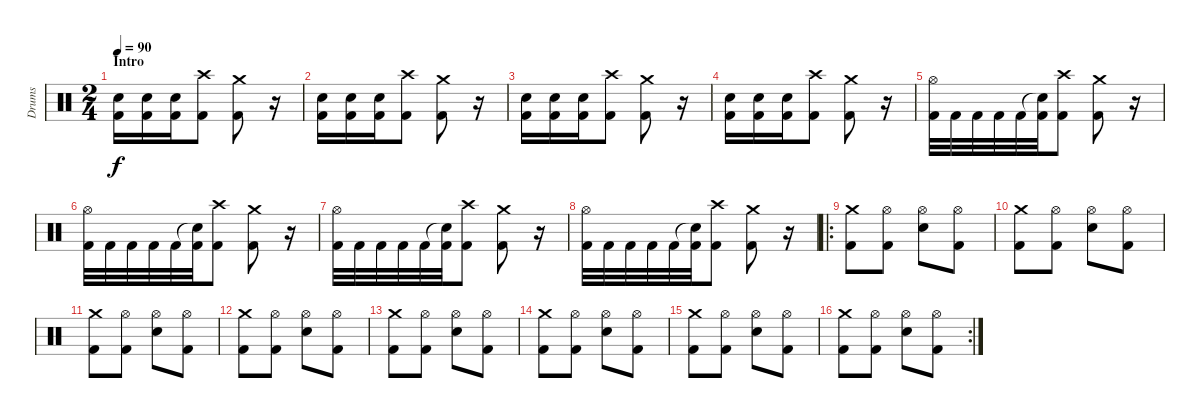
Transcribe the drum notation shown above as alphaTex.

\track ("Drums" "Drums") {instrument percussion}
\staff {score}
\articulation defaults
\ts (2 4)
\section ("" "Intro")
\tempo 90
\clef neutral
\ks c
("Snare (hit) 2" "Kick (hit) 2").16{dy f} ("Snare (hit) 2" "Kick (hit) 2").16 ("Snare (hit) 2" "Kick (hit) 2").16 ("Crash high (hit)" "Kick (hit) 2").8 ("Crash medium (hit)" "Kick (hit) 2").8 r.16 |
("Snare (hit) 2" "Kick (hit) 2").16 ("Snare (hit) 2" "Kick (hit) 2").16 ("Snare (hit) 2" "Kick (hit) 2").16 ("Crash high (hit)" "Kick (hit) 2").8 ("Crash medium (hit)" "Kick (hit) 2").8 r.16 |
("Snare (hit) 2" "Kick (hit) 2").16 ("Snare (hit) 2" "Kick (hit) 2").16 ("Snare (hit) 2" "Kick (hit) 2").16 ("Crash high (hit)" "Kick (hit) 2").8 ("Crash medium (hit)" "Kick (hit) 2").8 r.16 |
("Snare (hit) 2" "Kick (hit) 2").16 ("Snare (hit) 2" "Kick (hit) 2").16 ("Snare (hit) 2" "Kick (hit) 2").16 ("Crash high (hit)" "Kick (hit) 2").8 ("Crash medium (hit)" "Kick (hit) 2").8 r.16 |
("Hi-Hat (open)" "Kick (hit) 2").32 "Kick (hit) 2".32 "Kick (hit) 2".32 "Kick (hit) 2".32 "Kick (hit) 2".32 ("Snare (hit) 2"{t} "Kick (hit) 2").32 ("Crash high (hit)" "Kick (hit) 2").8 ("Crash medium (hit)" "Kick (hit) 2").8 r.16 |
("Hi-Hat (open)" "Kick (hit) 2").32 "Kick (hit) 2".32 "Kick (hit) 2".32 "Kick (hit) 2".32 "Kick (hit) 2".32 ("Snare (hit) 2"{t} "Kick (hit) 2").32 ("Crash high (hit)" "Kick (hit) 2").8 ("Crash medium (hit)" "Kick (hit) 2").8 r.16 |
("Hi-Hat (open)" "Kick (hit) 2").32 "Kick (hit) 2".32 "Kick (hit) 2".32 "Kick (hit) 2".32 "Kick (hit) 2".32 ("Snare (hit) 2"{t} "Kick (hit) 2").32 ("Crash high (hit)" "Kick (hit) 2").8 ("Crash medium (hit)" "Kick (hit) 2").8 r.16 |
("Hi-Hat (open)" "Kick (hit) 2").32 "Kick (hit) 2".32 "Kick (hit) 2".32 "Kick (hit) 2".32 "Kick (hit) 2".32 ("Snare (hit) 2"{t} "Kick (hit) 2").32 ("Crash high (hit)" "Kick (hit) 2").8 ("Crash medium (hit)" "Kick (hit) 2").8 r.16 |
\ro
("Crash medium (hit)" "Kick (hit) 2").8 ("Hi-Hat (open)" "Kick (hit) 2").8 ("Hi-Hat (open)" "Snare (hit) 2").8 ("Hi-Hat (open)" "Kick (hit) 2").8 |
("Crash medium (hit)" "Kick (hit) 2").8 ("Hi-Hat (open)" "Kick (hit) 2").8 ("Hi-Hat (open)" "Snare (hit) 2").8 ("Hi-Hat (open)" "Kick (hit) 2").8 |
("Crash medium (hit)" "Kick (hit) 2").8 ("Hi-Hat (open)" "Kick (hit) 2").8 ("Hi-Hat (open)" "Snare (hit) 2").8 ("Hi-Hat (open)" "Kick (hit) 2").8 |
("Crash medium (hit)" "Kick (hit) 2").8 ("Hi-Hat (open)" "Kick (hit) 2").8 ("Hi-Hat (open)" "Snare (hit) 2").8 ("Hi-Hat (open)" "Kick (hit) 2").8 |
("Crash medium (hit)" "Kick (hit) 2").8 ("Hi-Hat (open)" "Kick (hit) 2").8 ("Hi-Hat (open)" "Snare (hit) 2").8 ("Hi-Hat (open)" "Kick (hit) 2").8 |
("Crash medium (hit)" "Kick (hit) 2").8 ("Hi-Hat (open)" "Kick (hit) 2").8 ("Hi-Hat (open)" "Snare (hit) 2").8 ("Hi-Hat (open)" "Kick (hit) 2").8 |
("Crash medium (hit)" "Kick (hit) 2").8 ("Hi-Hat (open)" "Kick (hit) 2").8 ("Hi-Hat (open)" "Snare (hit) 2").8 ("Hi-Hat (open)" "Kick (hit) 2").8 |
\rc 2
("Crash medium (hit)" "Kick (hit) 2").8 ("Hi-Hat (open)" "Kick (hit) 2").8 ("Hi-Hat (open)" "Snare (hit) 2").8 ("Hi-Hat (open)" "Kick (hit) 2").8
